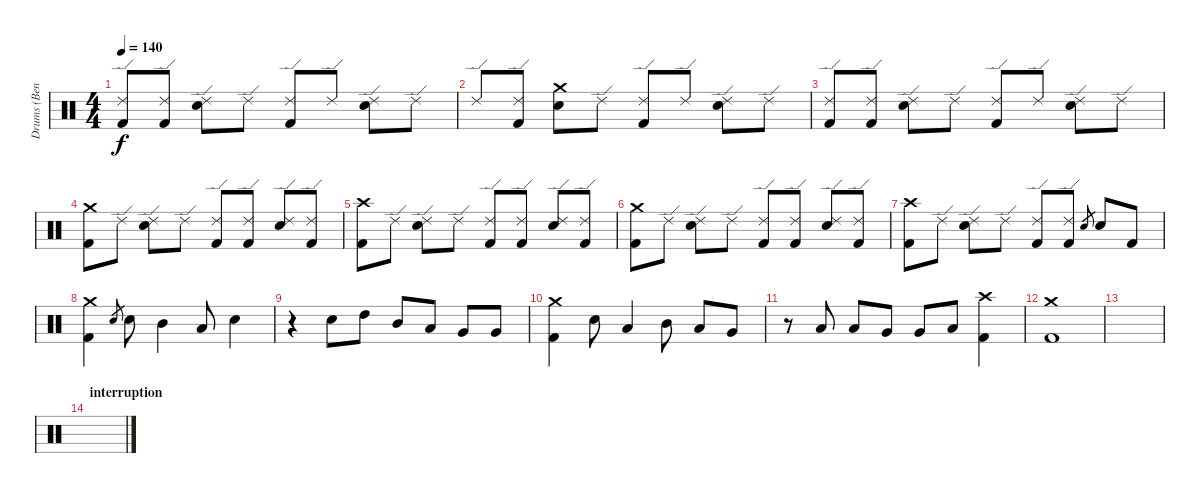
\track ("Drums (Bengerg)" "Drums (Ben") {instrument percussion}
\staff {score}
\articulation defaults
\ts (4 4)
\tempo 140
\clef neutral
\ks c
("Ride (edge) 2" "Kick (hit) 2").8{dy f} ("Ride (edge) 2" "Kick (hit) 2").8 ("Ride (edge) 2" "Electric Snare (hit)").8 "Ride (edge) 2".8 ("Ride (edge) 2" "Kick (hit) 2").8 "Ride (edge) 2".8 ("Ride (edge) 2" "Electric Snare (hit)").8 "Ride (edge) 2".8 |
"Ride (edge) 2".8 ("Ride (edge) 2" "Kick (hit) 2").8 ("Crash medium (hit)" "Electric Snare (hit)").8 "Ride (edge) 2".8 ("Ride (edge) 2" "Kick (hit) 2").8 "Ride (edge) 2".8 ("Ride (edge) 2" "Electric Snare (hit)").8 "Ride (edge) 2".8 |
("Ride (edge) 2" "Kick (hit) 2").8 ("Ride (edge) 2" "Kick (hit) 2").8 ("Ride (edge) 2" "Electric Snare (hit)").8 "Ride (edge) 2".8 ("Ride (edge) 2" "Kick (hit) 2").8 "Ride (edge) 2".8 ("Ride (edge) 2" "Electric Snare (hit)").8 "Ride (edge) 2".8 |
("Crash medium (hit)" "Kick (hit) 2").8 "Ride (edge) 2".8 ("Ride (edge) 2" "Electric Snare (hit)").8 "Ride (edge) 2".8 ("Ride (edge) 2" "Kick (hit) 2").8 ("Ride (edge) 2" "Kick (hit) 2").8 ("Ride (edge) 2" "Electric Snare (hit)").8 ("Ride (edge) 2" "Kick (hit) 2").8 |
("Crash high (hit)" "Kick (hit) 2").8 "Ride (edge) 2".8 ("Ride (edge) 2" "Electric Snare (hit)").8 "Ride (edge) 2".8 ("Ride (edge) 2" "Kick (hit) 2").8 ("Ride (edge) 2" "Kick (hit) 2").8 ("Ride (edge) 2" "Electric Snare (hit)").8 ("Ride (edge) 2" "Kick (hit) 2").8 |
("Crash medium (hit)" "Kick (hit) 2").8 "Ride (edge) 2".8 ("Ride (edge) 2" "Electric Snare (hit)").8 "Ride (edge) 2".8 ("Ride (edge) 2" "Kick (hit) 2").8 ("Ride (edge) 2" "Kick (hit) 2").8 ("Ride (edge) 2" "Electric Snare (hit)").8 ("Ride (edge) 2" "Kick (hit) 2").8 |
("Crash high (hit)" "Kick (hit) 2").8 "Ride (edge) 2".8 ("Ride (edge) 2" "Electric Snare (hit)").8 "Ride (edge) 2".8 ("Ride (edge) 2" "Kick (hit) 2").8 ("Ride (edge) 2" "Kick (hit) 2").8 "Electric Snare (hit)".8{gr} "Electric Snare (hit)".8 "Kick (hit) 2".8 |
("Crash medium (hit)" "Kick (hit) 2").4 "Electric Snare (hit)".8{gr} "Electric Snare (hit)".8 "Mid Tom (hit)".4 "Low Tom (hit)".8 "Electric Snare (hit)".4 |
r.4 "Electric Snare (hit)".8 "High Tom (hit)".8 "Mid Tom (hit)".8 "Low Tom (hit)".8 "Very Low Tom (hit)".8 "Very Low Tom (hit)".8 |
("Crash medium (hit)" "Kick (hit) 2").4 "Electric Snare (hit)".8 "Low Tom (hit)".4 "Mid Tom (hit)".8 "Low Tom (hit)".8 "Very Low Tom (hit)".8 |
r.8 "Low Tom (hit)".8 "Low Tom (hit)".8 "Very Low Tom (hit)".8 "Very Low Tom (hit)".8 "Low Floor Tom (hit)".8 ("Crash high (hit)" "Kick (hit) 2").4 |
("Crash medium (hit)" "Kick (hit) 2").1 |
|
\section ("" "interruption")
